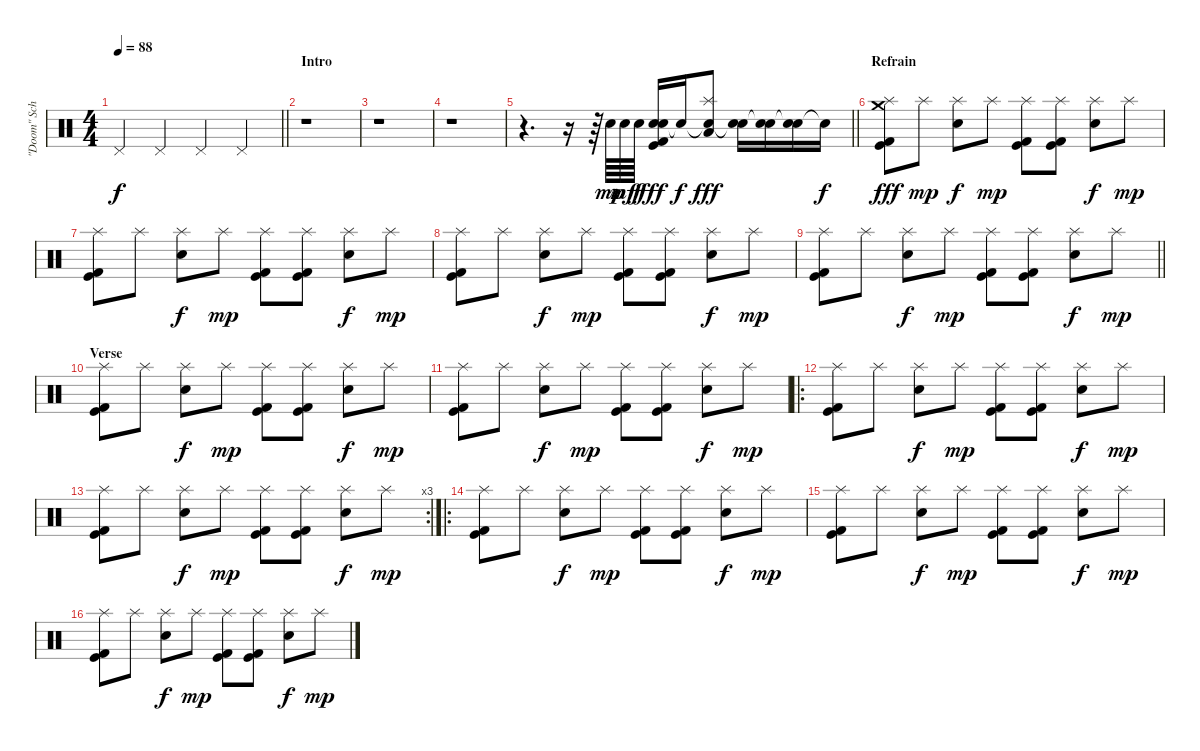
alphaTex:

\track ("\"Doom\" Schneider" "\"Doom\" Sch") {instrument percussion}
\staff {score}
\articulation defaults
\ts (4 4)
\tempo 88
\clef neutral
\barLineRight lightlight
\ks c "Pedal Hi-Hat (hit)".4{dy f} "Pedal Hi-Hat (hit)".4 "Pedal Hi-Hat (hit)".4 "Pedal Hi-Hat (hit)".4
|
\section ("" "Intro")
r.1 |
r.1 |
r.1 |
\barLineRight lightlight
r.4{d} r.16 r.64 "Snare (hit) 2".64{dy mp} "Snare (hit) 2".64{dy mf} "Snare (hit) 2".64{dy f} ("Snare (hit) 2"{tr (38 32)} "Electric Snare (hit)" "Kick (hit) 2" "Kick (hit)").16{dy fff} "Snare (hit)"{t}.16{dy f} ("Snare (hit) 2"{t} "Splash (hit)" "Low Floor Tom (hit)").8{dy fff} ("Snare (hit)"{t} "Electric Snare (hit)").16 ("Snare (hit)"{t} "Electric Snare (hit)").16 ("Snare (hit)"{t} "Snare (hit) 2").16 "Snare (hit)"{t}.16{dy f} |
\section ("" "Refrain")
("Splash (hit)" "Kick (hit)" "Kick (hit) 2" "Crash medium (hit)").8{dy fff} "Splash (hit)".8{dy mp} ("Splash (hit)" "Snare (hit) 2").8{dy f} "Splash (hit)".8{dy mp} ("Splash (hit)" "Kick (hit)" "Kick (hit) 2").8 ("Splash (hit)" "Kick (hit)" "Kick (hit) 2").8 ("Splash (hit)" "Snare (hit) 2").8{dy f} "Splash (hit)".8{dy mp} |
("Splash (hit)" "Kick (hit)" "Kick (hit) 2").8 "Splash (hit)".8 ("Splash (hit)" "Snare (hit) 2").8{dy f} "Splash (hit)".8{dy mp} ("Splash (hit)" "Kick (hit)" "Kick (hit) 2").8 ("Splash (hit)" "Kick (hit)" "Kick (hit) 2").8 ("Splash (hit)" "Snare (hit) 2").8{dy f} "Splash (hit)".8{dy mp} |
("Splash (hit)" "Kick (hit)" "Kick (hit) 2").8 "Splash (hit)".8 ("Splash (hit)" "Snare (hit) 2").8{dy f} "Splash (hit)".8{dy mp} ("Splash (hit)" "Kick (hit)" "Kick (hit) 2").8 ("Splash (hit)" "Kick (hit)" "Kick (hit) 2").8 ("Splash (hit)" "Snare (hit) 2").8{dy f} "Splash (hit)".8{dy mp} |
\barLineRight lightlight
("Splash (hit)" "Kick (hit)" "Kick (hit) 2").8 "Splash (hit)".8 ("Splash (hit)" "Snare (hit) 2").8{dy f} "Splash (hit)".8{dy mp} ("Splash (hit)" "Kick (hit)" "Kick (hit) 2").8 ("Splash (hit)" "Kick (hit)" "Kick (hit) 2").8 ("Splash (hit)" "Snare (hit) 2").8{dy f} "Splash (hit)".8{dy mp} |
\section ("" "Verse")
("Splash (hit)" "Kick (hit)" "Kick (hit) 2").8 "Splash (hit)".8 ("Splash (hit)" "Snare (hit) 2").8{dy f} "Splash (hit)".8{dy mp} ("Splash (hit)" "Kick (hit)" "Kick (hit) 2").8 ("Splash (hit)" "Kick (hit)" "Kick (hit) 2").8 ("Splash (hit)" "Snare (hit) 2").8{dy f} "Splash (hit)".8{dy mp} |
("Splash (hit)" "Kick (hit)" "Kick (hit) 2").8 "Splash (hit)".8 ("Splash (hit)" "Snare (hit) 2").8{dy f} "Splash (hit)".8{dy mp} ("Splash (hit)" "Kick (hit)" "Kick (hit) 2").8 ("Splash (hit)" "Kick (hit)" "Kick (hit) 2").8 ("Splash (hit)" "Snare (hit) 2").8{dy f} "Splash (hit)".8{dy mp} |
\ro
("Splash (hit)" "Kick (hit)" "Kick (hit) 2").8 "Splash (hit)".8 ("Splash (hit)" "Snare (hit) 2").8{dy f} "Splash (hit)".8{dy mp} ("Splash (hit)" "Kick (hit)" "Kick (hit) 2").8 ("Splash (hit)" "Kick (hit)" "Kick (hit) 2").8 ("Splash (hit)" "Snare (hit) 2").8{dy f} "Splash (hit)".8{dy mp} |
\rc 3
("Splash (hit)" "Kick (hit)" "Kick (hit) 2").8 "Splash (hit)".8 ("Splash (hit)" "Snare (hit) 2").8{dy f} "Splash (hit)".8{dy mp} ("Splash (hit)" "Kick (hit)" "Kick (hit) 2").8 ("Splash (hit)" "Kick (hit)" "Kick (hit) 2").8 ("Splash (hit)" "Snare (hit) 2").8{dy f} "Splash (hit)".8{dy mp} |
\ro
("Splash (hit)" "Kick (hit)" "Kick (hit) 2").8 "Splash (hit)".8 ("Splash (hit)" "Snare (hit) 2").8{dy f} "Splash (hit)".8{dy mp} ("Splash (hit)" "Kick (hit)" "Kick (hit) 2").8 ("Splash (hit)" "Kick (hit)" "Kick (hit) 2").8 ("Splash (hit)" "Snare (hit) 2").8{dy f} "Splash (hit)".8{dy mp} |
("Splash (hit)" "Kick (hit)" "Kick (hit) 2").8 "Splash (hit)".8 ("Splash (hit)" "Snare (hit) 2").8{dy f} "Splash (hit)".8{dy mp} ("Splash (hit)" "Kick (hit)" "Kick (hit) 2").8 ("Splash (hit)" "Kick (hit)" "Kick (hit) 2").8 ("Splash (hit)" "Snare (hit) 2").8{dy f} "Splash (hit)".8{dy mp} |
("Splash (hit)" "Kick (hit)" "Kick (hit) 2").8 "Splash (hit)".8 ("Splash (hit)" "Snare (hit) 2").8{dy f} "Splash (hit)".8{dy mp} ("Splash (hit)" "Kick (hit)" "Kick (hit) 2").8 ("Splash (hit)" "Kick (hit)" "Kick (hit) 2").8 ("Splash (hit)" "Snare (hit) 2").8{dy f} "Splash (hit)".8{dy mp}
